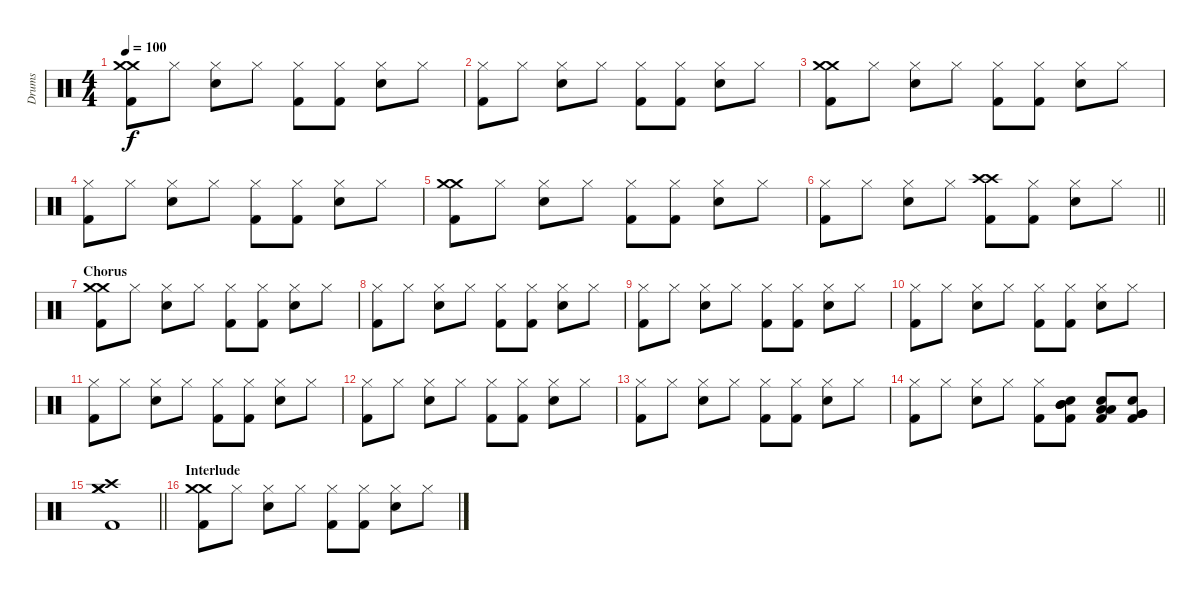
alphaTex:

\track ("Drums" "Drums") {instrument percussion}
\staff {score}
\articulation defaults
\ts (4 4)
\tempo 100
\clef neutral
\ks c
("Crash medium (hit)" "Crash medium (hit)" "Kick (hit) 2").8{dy f} "Hi-Hat (closed)".8 ("Hi-Hat (closed)" "Electric Snare (hit)").8 "Hi-Hat (closed)".8 ("Hi-Hat (closed)" "Kick (hit) 2").8 ("Hi-Hat (closed)" "Kick (hit) 2").8 ("Hi-Hat (closed)" "Electric Snare (hit)").8 "Hi-Hat (closed)".8 |
("Hi-Hat (closed)" "Kick (hit) 2").8 "Hi-Hat (closed)".8 ("Hi-Hat (closed)" "Electric Snare (hit)").8 "Hi-Hat (closed)".8 ("Hi-Hat (closed)" "Kick (hit) 2").8 ("Hi-Hat (closed)" "Kick (hit) 2").8 ("Hi-Hat (closed)" "Electric Snare (hit)").8 "Hi-Hat (closed)".8 |
("Crash medium (hit)" "Crash medium (hit)" "Kick (hit) 2").8 "Hi-Hat (closed)".8 ("Hi-Hat (closed)" "Electric Snare (hit)").8 "Hi-Hat (closed)".8 ("Hi-Hat (closed)" "Kick (hit) 2").8 ("Hi-Hat (closed)" "Kick (hit) 2").8 ("Hi-Hat (closed)" "Electric Snare (hit)").8 "Hi-Hat (closed)".8 |
("Hi-Hat (closed)" "Kick (hit) 2").8 "Hi-Hat (closed)".8 ("Hi-Hat (closed)" "Electric Snare (hit)").8 "Hi-Hat (closed)".8 ("Hi-Hat (closed)" "Kick (hit) 2").8 ("Hi-Hat (closed)" "Kick (hit) 2").8 ("Hi-Hat (closed)" "Electric Snare (hit)").8 "Hi-Hat (closed)".8 |
("Crash medium (hit)" "Crash medium (hit)" "Kick (hit) 2").8 "Hi-Hat (closed)".8 ("Hi-Hat (closed)" "Electric Snare (hit)").8 "Hi-Hat (closed)".8 ("Hi-Hat (closed)" "Kick (hit) 2").8 ("Hi-Hat (closed)" "Kick (hit) 2").8 ("Hi-Hat (closed)" "Electric Snare (hit)").8 "Hi-Hat (closed)".8 |
\barLineRight lightlight
("Hi-Hat (closed)" "Kick (hit) 2").8 "Hi-Hat (closed)".8 ("Hi-Hat (closed)" "Electric Snare (hit)").8 "Hi-Hat (closed)".8 ("Crash high (hit)" "Crash high (hit)" "Kick (hit) 2").8 ("Hi-Hat (closed)" "Kick (hit) 2").8 ("Hi-Hat (closed)" "Electric Snare (hit)").8 "Hi-Hat (closed)".8 |
\section ("" "Chorus")
("Crash medium (hit)" "Crash medium (hit)" "Kick (hit) 2").8 "Hi-Hat (closed)".8 ("Hi-Hat (closed)" "Electric Snare (hit)").8 "Hi-Hat (closed)".8 ("Hi-Hat (closed)" "Kick (hit) 2").8 ("Hi-Hat (closed)" "Kick (hit) 2").8 ("Hi-Hat (closed)" "Electric Snare (hit)").8 "Hi-Hat (closed)".8 |
("Hi-Hat (closed)" "Kick (hit) 2").8 "Hi-Hat (closed)".8 ("Hi-Hat (closed)" "Electric Snare (hit)").8 "Hi-Hat (closed)".8 ("Hi-Hat (closed)" "Kick (hit) 2").8 ("Hi-Hat (closed)" "Kick (hit) 2").8 ("Hi-Hat (closed)" "Electric Snare (hit)").8 "Hi-Hat (closed)".8 |
("Hi-Hat (closed)" "Kick (hit) 2").8 "Hi-Hat (closed)".8 ("Hi-Hat (closed)" "Electric Snare (hit)").8 "Hi-Hat (closed)".8 ("Hi-Hat (closed)" "Kick (hit) 2").8 ("Hi-Hat (closed)" "Kick (hit) 2").8 ("Hi-Hat (closed)" "Electric Snare (hit)").8 "Hi-Hat (closed)".8 |
("Hi-Hat (closed)" "Kick (hit) 2").8 "Hi-Hat (closed)".8 ("Hi-Hat (closed)" "Electric Snare (hit)").8 "Hi-Hat (closed)".8 ("Hi-Hat (closed)" "Kick (hit) 2").8 ("Hi-Hat (closed)" "Kick (hit) 2").8 ("Hi-Hat (closed)" "Electric Snare (hit)").8 "Hi-Hat (closed)".8 |
("Hi-Hat (closed)" "Kick (hit) 2").8 "Hi-Hat (closed)".8 ("Hi-Hat (closed)" "Electric Snare (hit)").8 "Hi-Hat (closed)".8 ("Hi-Hat (closed)" "Kick (hit) 2").8 ("Hi-Hat (closed)" "Kick (hit) 2").8 ("Hi-Hat (closed)" "Electric Snare (hit)").8 "Hi-Hat (closed)".8 |
("Hi-Hat (closed)" "Kick (hit) 2").8 "Hi-Hat (closed)".8 ("Hi-Hat (closed)" "Electric Snare (hit)").8 "Hi-Hat (closed)".8 ("Hi-Hat (closed)" "Kick (hit) 2").8 ("Hi-Hat (closed)" "Kick (hit) 2").8 ("Hi-Hat (closed)" "Electric Snare (hit)").8 "Hi-Hat (closed)".8 |
("Hi-Hat (closed)" "Kick (hit) 2").8 "Hi-Hat (closed)".8 ("Hi-Hat (closed)" "Electric Snare (hit)").8 "Hi-Hat (closed)".8 ("Hi-Hat (closed)" "Kick (hit) 2").8 ("Hi-Hat (closed)" "Kick (hit) 2").8 ("Hi-Hat (closed)" "Electric Snare (hit)").8 "Hi-Hat (closed)".8 |
("Hi-Hat (closed)" "Kick (hit) 2").8 "Hi-Hat (closed)".8 ("Hi-Hat (closed)" "Electric Snare (hit)").8 "Hi-Hat (closed)".8 ("Hi-Hat (closed)" "Kick (hit) 2").8 ("Mid Tom (hit)" "Mid Tom (hit)" "Electric Snare (hit)" "Kick (hit) 2").8 ("Low Tom (hit)" "Low Tom (hit)" "Electric Snare (hit)" "Kick (hit) 2").8 ("Electric Snare (hit)" "Very Low Tom (hit)" "Very Low Tom (hit)" "Kick (hit) 2").8 |
\barLineRight lightlight
("Crash high (hit)" "Crash medium (hit)" "Crash medium (hit)" "Kick (hit) 2").1 |
\section ("" "Interlude")
("Crash medium (hit)" "Crash medium (hit)" "Kick (hit) 2").8 "Hi-Hat (closed)".8 ("Hi-Hat (closed)" "Electric Snare (hit)").8 "Hi-Hat (closed)".8 ("Hi-Hat (closed)" "Kick (hit) 2").8 ("Hi-Hat (closed)" "Kick (hit) 2").8 ("Hi-Hat (closed)" "Electric Snare (hit)").8 "Hi-Hat (closed)".8
